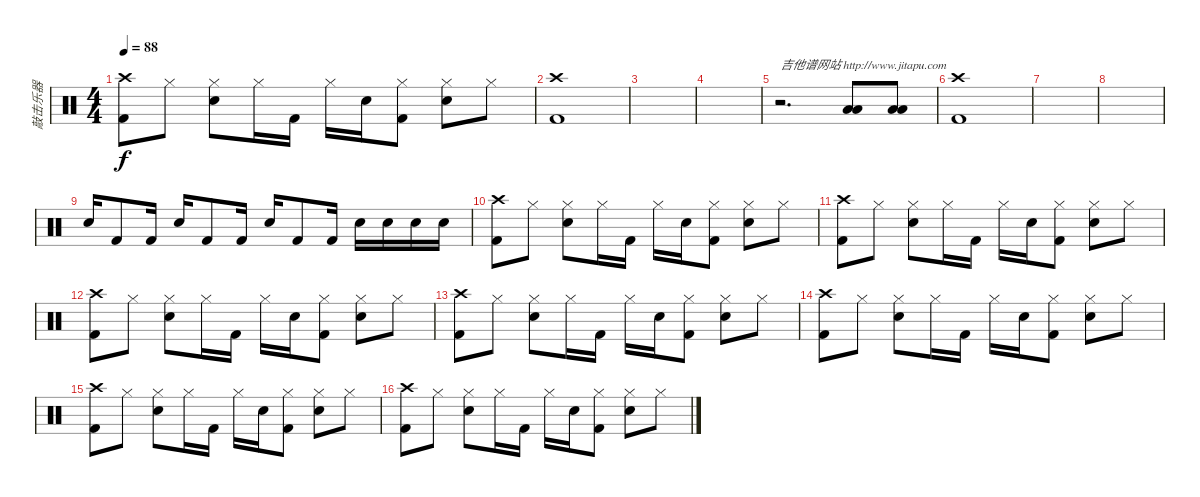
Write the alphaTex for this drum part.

\track ("敲击乐器" "敲击乐器") {instrument percussion}
\staff {score}
\articulation defaults
\ts (4 4)
\tempo 88
\clef neutral
\ks c
("Crash high (hit)" "Kick (hit) 2").8{dy f} "Hi-Hat (closed)".8 ("Hi-Hat (closed)" "Electric Snare (hit)").8 "Hi-Hat (closed)".16 "Kick (hit) 2".16 "Hi-Hat (closed)".16 "Electric Snare (hit)".16 ("Hi-Hat (closed)" "Kick (hit) 2").8 ("Hi-Hat (closed)" "Electric Snare (hit)").8 "Hi-Hat (closed)".8 |
("Crash high (hit)" "Kick (hit) 2").1 |
|
|
r.2{d txt "吉他谱网站 http://www.jitapu.com"} ("Low Tom (hit)" "Low Floor Tom (hit)").8 ("Low Tom (hit)" "Low Floor Tom (hit)").8 |
("Crash high (hit)" "Kick (hit) 2").1 |
|
|
"Electric Snare (hit)".16 "Kick (hit) 2".8 "Kick (hit) 2".16 "Electric Snare (hit)".16 "Kick (hit) 2".8 "Kick (hit) 2".16 "Electric Snare (hit)".16 "Kick (hit) 2".8 "Kick (hit) 2".16 "Electric Snare (hit)".16 "Electric Snare (hit)".16 "Electric Snare (hit)".16 "Electric Snare (hit)".16 |
("Crash high (hit)" "Kick (hit) 2").8 "Hi-Hat (closed)".8 ("Hi-Hat (closed)" "Electric Snare (hit)").8 "Hi-Hat (closed)".16 "Kick (hit) 2".16 "Hi-Hat (closed)".16 "Electric Snare (hit)".16 ("Hi-Hat (closed)" "Kick (hit) 2").8 ("Hi-Hat (closed)" "Electric Snare (hit)").8 "Hi-Hat (closed)".8 |
("Crash high (hit)" "Kick (hit) 2").8 "Hi-Hat (closed)".8 ("Hi-Hat (closed)" "Electric Snare (hit)").8 "Hi-Hat (closed)".16 "Kick (hit) 2".16 "Hi-Hat (closed)".16 "Electric Snare (hit)".16 ("Hi-Hat (closed)" "Kick (hit) 2").8 ("Hi-Hat (closed)" "Electric Snare (hit)").8 "Hi-Hat (closed)".8 |
("Crash high (hit)" "Kick (hit) 2").8 "Hi-Hat (closed)".8 ("Hi-Hat (closed)" "Electric Snare (hit)").8 "Hi-Hat (closed)".16 "Kick (hit) 2".16 "Hi-Hat (closed)".16 "Electric Snare (hit)".16 ("Hi-Hat (closed)" "Kick (hit) 2").8 ("Hi-Hat (closed)" "Electric Snare (hit)").8 "Hi-Hat (closed)".8 |
("Crash high (hit)" "Kick (hit) 2").8 "Hi-Hat (closed)".8 ("Hi-Hat (closed)" "Electric Snare (hit)").8 "Hi-Hat (closed)".16 "Kick (hit) 2".16 "Hi-Hat (closed)".16 "Electric Snare (hit)".16 ("Hi-Hat (closed)" "Kick (hit) 2").8 ("Hi-Hat (closed)" "Electric Snare (hit)").8 "Hi-Hat (closed)".8 |
("Crash high (hit)" "Kick (hit) 2").8 "Hi-Hat (closed)".8 ("Hi-Hat (closed)" "Electric Snare (hit)").8 "Hi-Hat (closed)".16 "Kick (hit) 2".16 "Hi-Hat (closed)".16 "Electric Snare (hit)".16 ("Hi-Hat (closed)" "Kick (hit) 2").8 ("Hi-Hat (closed)" "Electric Snare (hit)").8 "Hi-Hat (closed)".8 |
("Crash high (hit)" "Kick (hit) 2").8 "Hi-Hat (closed)".8 ("Hi-Hat (closed)" "Electric Snare (hit)").8 "Hi-Hat (closed)".16 "Kick (hit) 2".16 "Hi-Hat (closed)".16 "Electric Snare (hit)".16 ("Hi-Hat (closed)" "Kick (hit) 2").8 ("Hi-Hat (closed)" "Electric Snare (hit)").8 "Hi-Hat (closed)".8 |
("Crash high (hit)" "Kick (hit) 2").8 "Hi-Hat (closed)".8 ("Hi-Hat (closed)" "Electric Snare (hit)").8 "Hi-Hat (closed)".16 "Kick (hit) 2".16 "Hi-Hat (closed)".16 "Electric Snare (hit)".16 ("Hi-Hat (closed)" "Kick (hit) 2").8 ("Hi-Hat (closed)" "Electric Snare (hit)").8 "Hi-Hat (closed)".8
